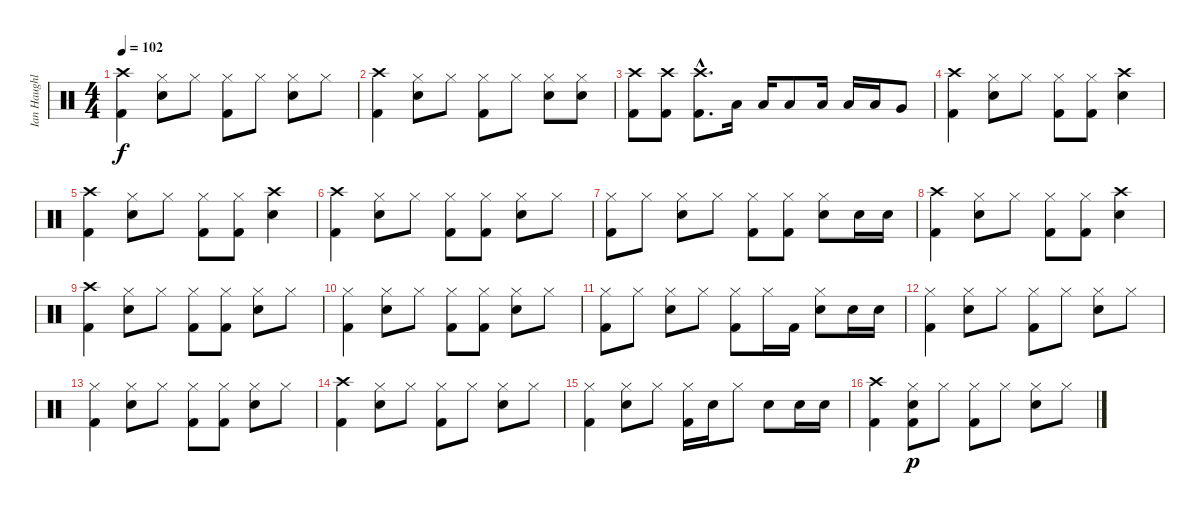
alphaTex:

\track ("Ian Haughland" "Ian Haughl") {instrument percussion}
\staff {score}
\articulation defaults
\ts (4 4)
\tempo 102
\clef neutral
\ks c
("Crash high (hit)" "Kick (hit) 2").4{dy f} ("Hi-Hat (closed)" "Snare (hit) 2").8 "Hi-Hat (closed)".8 ("Hi-Hat (closed)" "Kick (hit) 2").8 "Hi-Hat (closed)".8 ("Hi-Hat (closed)" "Snare (hit) 2").8 "Hi-Hat (closed)".8 |
("Crash high (hit)" "Kick (hit) 2").4 ("Hi-Hat (closed)" "Snare (hit) 2").8 "Hi-Hat (closed)".8 ("Hi-Hat (closed)" "Kick (hit) 2").8 "Hi-Hat (closed)".8 ("Hi-Hat (closed)" "Snare (hit) 2").8 ("Hi-Hat (closed)" "Snare (hit) 2").8 |
("Crash high (hit)" "Kick (hit) 2").8 ("Crash high (hit)" "Kick (hit) 2").8 ("Crash high (hit)"{hac} "Kick (hit) 2"{hac}).8{d} "Low Tom (hit)".16 "Low Tom (hit)".16 "Low Tom (hit)".8 "Low Tom (hit)".16 "Low Tom (hit)".16 "Low Tom (hit)".16 "Very Low Tom (hit)".8 |
("Crash high (hit)" "Kick (hit) 2").4 ("Hi-Hat (closed)" "Snare (hit) 2").8 "Hi-Hat (closed)".8 ("Hi-Hat (closed)" "Kick (hit) 2").8 ("Hi-Hat (closed)" "Kick (hit) 2").8 ("Crash high (hit)" "Snare (hit) 2").4 |
("Crash high (hit)" "Kick (hit) 2").4 ("Hi-Hat (closed)" "Snare (hit) 2").8 "Hi-Hat (closed)".8 ("Hi-Hat (closed)" "Kick (hit) 2").8 ("Hi-Hat (closed)" "Kick (hit) 2").8 ("Crash high (hit)" "Snare (hit) 2").4 |
("Crash high (hit)" "Kick (hit) 2").4 ("Hi-Hat (closed)" "Snare (hit) 2").8 "Hi-Hat (closed)".8 ("Hi-Hat (closed)" "Kick (hit) 2").8 ("Hi-Hat (closed)" "Kick (hit) 2").8 ("Hi-Hat (closed)" "Snare (hit) 2").8 "Hi-Hat (closed)".8 |
("Hi-Hat (closed)" "Kick (hit) 2").8 "Hi-Hat (closed)".8 ("Hi-Hat (closed)" "Snare (hit) 2").8 "Hi-Hat (closed)".8 ("Hi-Hat (closed)" "Kick (hit) 2").8 ("Hi-Hat (closed)" "Kick (hit) 2").8 ("Hi-Hat (closed)" "Snare (hit) 2").8 "Snare (hit) 2".16 "Snare (hit) 2".16 |
("Crash high (hit)" "Kick (hit) 2").4 ("Hi-Hat (closed)" "Snare (hit) 2").8 "Hi-Hat (closed)".8 ("Hi-Hat (closed)" "Kick (hit) 2").8 ("Hi-Hat (closed)" "Kick (hit) 2").8 ("Crash high (hit)" "Snare (hit) 2").4 |
("Crash high (hit)" "Kick (hit) 2").4 ("Hi-Hat (closed)" "Snare (hit) 2").8 "Hi-Hat (closed)".8 ("Hi-Hat (closed)" "Kick (hit) 2").8 ("Hi-Hat (closed)" "Kick (hit) 2").8 ("Hi-Hat (closed)" "Snare (hit) 2").8 "Hi-Hat (closed)".8 |
("Hi-Hat (closed)" "Kick (hit) 2").4 ("Hi-Hat (closed)" "Snare (hit) 2").8 "Hi-Hat (closed)".8 ("Hi-Hat (closed)" "Kick (hit) 2").8 ("Hi-Hat (closed)" "Kick (hit) 2").8 ("Hi-Hat (closed)" "Snare (hit) 2").8 "Hi-Hat (closed)".8 |
("Hi-Hat (closed)" "Kick (hit) 2").8 "Hi-Hat (closed)".8 ("Hi-Hat (closed)" "Snare (hit) 2").8 "Hi-Hat (closed)".8 ("Hi-Hat (closed)" "Kick (hit) 2").8 "Hi-Hat (closed)".16 "Kick (hit) 2".16 ("Hi-Hat (closed)" "Snare (hit) 2").8 "Snare (hit) 2".16 "Snare (hit) 2".16 |
("Hi-Hat (closed)" "Kick (hit) 2").4 ("Hi-Hat (closed)" "Snare (hit) 2").8 "Hi-Hat (closed)".8 ("Hi-Hat (closed)" "Kick (hit) 2").8 "Hi-Hat (closed)".8 ("Hi-Hat (closed)" "Snare (hit) 2").8 "Hi-Hat (closed)".8 |
("Hi-Hat (closed)" "Kick (hit) 2").4 ("Hi-Hat (closed)" "Snare (hit) 2").8 "Hi-Hat (closed)".8 ("Hi-Hat (closed)" "Kick (hit) 2").8 ("Hi-Hat (closed)" "Kick (hit) 2").8 ("Hi-Hat (closed)" "Snare (hit) 2").8 "Hi-Hat (closed)".8 |
("Crash high (hit)" "Kick (hit) 2").4 ("Hi-Hat (closed)" "Snare (hit) 2").8 "Hi-Hat (closed)".8 ("Hi-Hat (closed)" "Kick (hit) 2").8 "Hi-Hat (closed)".8 ("Hi-Hat (closed)" "Snare (hit) 2").8 "Hi-Hat (closed)".8 |
("Hi-Hat (closed)" "Kick (hit) 2").4 ("Hi-Hat (closed)" "Snare (hit) 2").8 "Hi-Hat (closed)".8 ("Hi-Hat (closed)" "Kick (hit) 2").16 "Snare (hit) 2".16 "Hi-Hat (closed)".8 "Snare (hit) 2".8 "Snare (hit) 2".16 "Snare (hit) 2".16 |
("Kick (hit) 2" "Crash high (hit)").4 ("Kick (hit) 2" "Hi-Hat (closed)" "Snare (hit) 2").8{dy p} "Hi-Hat (closed)".8 ("Kick (hit) 2" "Hi-Hat (closed)").8 "Hi-Hat (closed)".8 ("Hi-Hat (closed)" "Snare (hit) 2").8 "Hi-Hat (closed)".8
